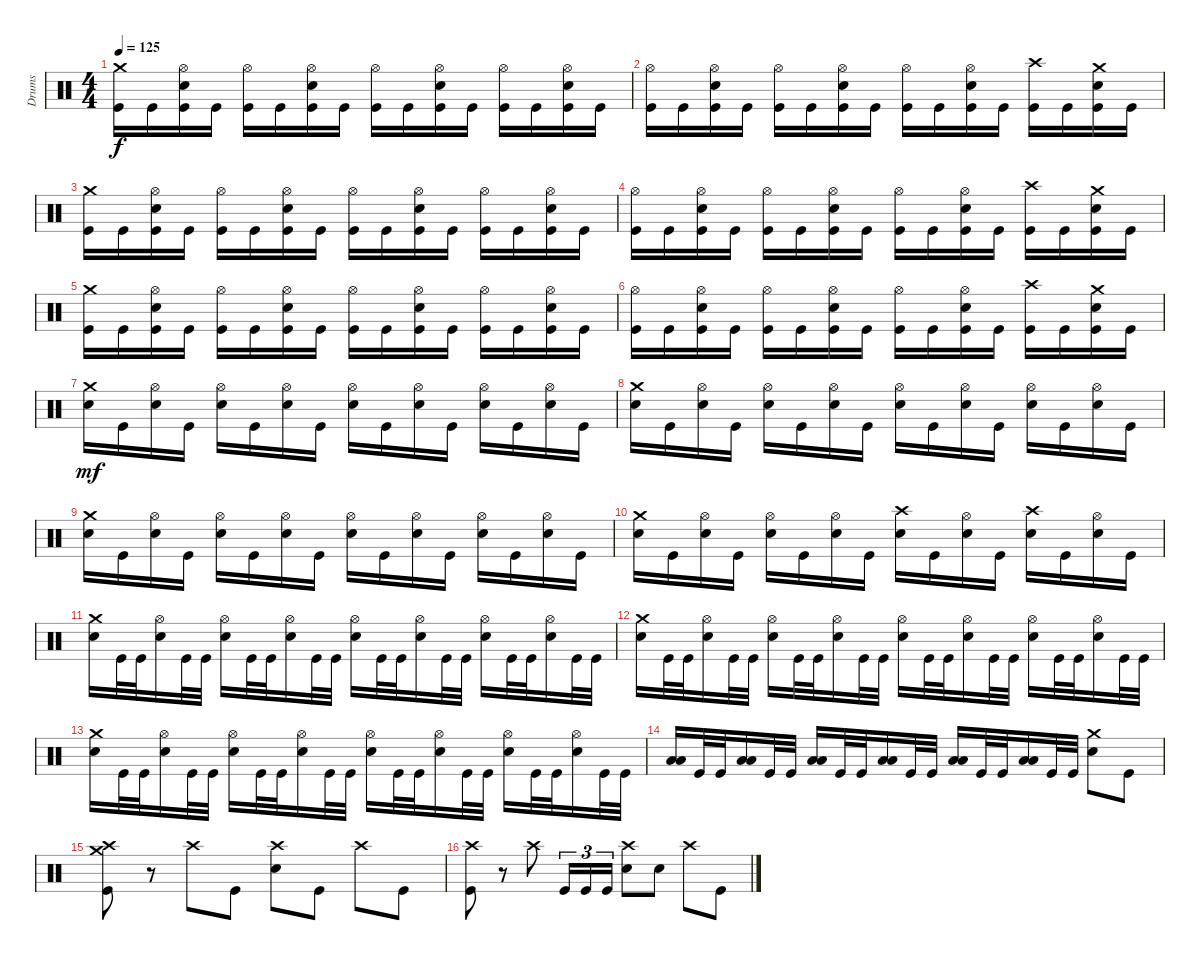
\track ("Drums" "Drums") {instrument percussion}
\staff {score}
\articulation defaults
\ts (4 4)
\tempo 125
\clef neutral
\ks c
("Crash medium (hit)" "Kick (hit)").16{dy f} "Kick (hit)".16 ("Hi-Hat (open)" "Electric Snare (hit)" "Kick (hit)").16 "Kick (hit)".16 ("Hi-Hat (open)" "Kick (hit)").16 "Kick (hit)".16 ("Hi-Hat (open)" "Electric Snare (hit)" "Kick (hit)").16 "Kick (hit)".16 ("Hi-Hat (open)" "Kick (hit)").16 "Kick (hit)".16 ("Hi-Hat (open)" "Electric Snare (hit)" "Kick (hit)").16 "Kick (hit)".16 ("Hi-Hat (open)" "Kick (hit)").16 "Kick (hit)".16 ("Hi-Hat (open)" "Electric Snare (hit)" "Kick (hit)").16 "Kick (hit)".16 |
("Hi-Hat (open)" "Kick (hit)").16 "Kick (hit)".16 ("Hi-Hat (open)" "Electric Snare (hit)" "Kick (hit)").16 "Kick (hit)".16 ("Hi-Hat (open)" "Kick (hit)").16 "Kick (hit)".16 ("Hi-Hat (open)" "Electric Snare (hit)" "Kick (hit)").16 "Kick (hit)".16 ("Hi-Hat (open)" "Kick (hit)").16 "Kick (hit)".16 ("Hi-Hat (open)" "Electric Snare (hit)" "Kick (hit)").16 "Kick (hit)".16 ("Crash high (hit)" "Kick (hit)").16 "Kick (hit)".16 ("Crash medium (hit)" "Electric Snare (hit)" "Kick (hit)").16 "Kick (hit)".16 |
("Crash medium (hit)" "Kick (hit)").16 "Kick (hit)".16 ("Hi-Hat (open)" "Electric Snare (hit)" "Kick (hit)").16 "Kick (hit)".16 ("Hi-Hat (open)" "Kick (hit)").16 "Kick (hit)".16 ("Hi-Hat (open)" "Electric Snare (hit)" "Kick (hit)").16 "Kick (hit)".16 ("Hi-Hat (open)" "Kick (hit)").16 "Kick (hit)".16 ("Hi-Hat (open)" "Electric Snare (hit)" "Kick (hit)").16 "Kick (hit)".16 ("Hi-Hat (open)" "Kick (hit)").16 "Kick (hit)".16 ("Hi-Hat (open)" "Electric Snare (hit)" "Kick (hit)").16 "Kick (hit)".16 |
("Hi-Hat (open)" "Kick (hit)").16 "Kick (hit)".16 ("Hi-Hat (open)" "Electric Snare (hit)" "Kick (hit)").16 "Kick (hit)".16 ("Hi-Hat (open)" "Kick (hit)").16 "Kick (hit)".16 ("Hi-Hat (open)" "Electric Snare (hit)" "Kick (hit)").16 "Kick (hit)".16 ("Hi-Hat (open)" "Kick (hit)").16 "Kick (hit)".16 ("Hi-Hat (open)" "Electric Snare (hit)" "Kick (hit)").16 "Kick (hit)".16 ("Crash high (hit)" "Kick (hit)").16 "Kick (hit)".16 ("Crash medium (hit)" "Electric Snare (hit)" "Kick (hit)").16 "Kick (hit)".16 |
("Crash medium (hit)" "Kick (hit)").16 "Kick (hit)".16 ("Hi-Hat (open)" "Electric Snare (hit)" "Kick (hit)").16 "Kick (hit)".16 ("Hi-Hat (open)" "Kick (hit)").16 "Kick (hit)".16 ("Hi-Hat (open)" "Electric Snare (hit)" "Kick (hit)").16 "Kick (hit)".16 ("Hi-Hat (open)" "Kick (hit)").16 "Kick (hit)".16 ("Hi-Hat (open)" "Electric Snare (hit)" "Kick (hit)").16 "Kick (hit)".16 ("Hi-Hat (open)" "Kick (hit)").16 "Kick (hit)".16 ("Hi-Hat (open)" "Electric Snare (hit)" "Kick (hit)").16 "Kick (hit)".16 |
("Hi-Hat (open)" "Kick (hit)").16 "Kick (hit)".16 ("Hi-Hat (open)" "Electric Snare (hit)" "Kick (hit)").16 "Kick (hit)".16 ("Hi-Hat (open)" "Kick (hit)").16 "Kick (hit)".16 ("Hi-Hat (open)" "Electric Snare (hit)" "Kick (hit)").16 "Kick (hit)".16 ("Hi-Hat (open)" "Kick (hit)").16 "Kick (hit)".16 ("Hi-Hat (open)" "Electric Snare (hit)" "Kick (hit)").16 "Kick (hit)".16 ("Crash high (hit)" "Kick (hit)").16 "Kick (hit)".16 ("Crash medium (hit)" "Electric Snare (hit)" "Kick (hit)").16 "Kick (hit)".16 |
("Crash medium (hit)" "Electric Snare (hit)").16{dy mf} "Kick (hit)".16 ("Hi-Hat (open)" "Electric Snare (hit)").16 "Kick (hit)".16 ("Hi-Hat (open)" "Electric Snare (hit)").16 "Kick (hit)".16 ("Hi-Hat (open)" "Electric Snare (hit)").16 "Kick (hit)".16 ("Hi-Hat (open)" "Electric Snare (hit)").16 "Kick (hit)".16 ("Hi-Hat (open)" "Electric Snare (hit)").16 "Kick (hit)".16 ("Hi-Hat (open)" "Electric Snare (hit)").16 "Kick (hit)".16 ("Hi-Hat (open)" "Electric Snare (hit)").16 "Kick (hit)".16 |
("Crash medium (hit)" "Electric Snare (hit)").16 "Kick (hit)".16 ("Hi-Hat (open)" "Electric Snare (hit)").16 "Kick (hit)".16 ("Hi-Hat (open)" "Electric Snare (hit)").16 "Kick (hit)".16 ("Hi-Hat (open)" "Electric Snare (hit)").16 "Kick (hit)".16 ("Hi-Hat (open)" "Electric Snare (hit)").16 "Kick (hit)".16 ("Hi-Hat (open)" "Electric Snare (hit)").16 "Kick (hit)".16 ("Hi-Hat (open)" "Electric Snare (hit)").16 "Kick (hit)".16 ("Hi-Hat (open)" "Electric Snare (hit)").16 "Kick (hit)".16 |
("Crash medium (hit)" "Electric Snare (hit)").16 "Kick (hit)".16 ("Hi-Hat (open)" "Electric Snare (hit)").16 "Kick (hit)".16 ("Hi-Hat (open)" "Electric Snare (hit)").16 "Kick (hit)".16 ("Hi-Hat (open)" "Electric Snare (hit)").16 "Kick (hit)".16 ("Hi-Hat (open)" "Electric Snare (hit)").16 "Kick (hit)".16 ("Hi-Hat (open)" "Electric Snare (hit)").16 "Kick (hit)".16 ("Hi-Hat (open)" "Electric Snare (hit)").16 "Kick (hit)".16 ("Hi-Hat (open)" "Electric Snare (hit)").16 "Kick (hit)".16 |
("Crash medium (hit)" "Electric Snare (hit)").16 "Kick (hit)".16 ("Hi-Hat (open)" "Electric Snare (hit)").16 "Kick (hit)".16 ("Hi-Hat (open)" "Electric Snare (hit)").16 "Kick (hit)".16 ("Hi-Hat (open)" "Electric Snare (hit)").16 "Kick (hit)".16 ("Crash high (hit)" "Electric Snare (hit)").16 "Kick (hit)".16 ("Hi-Hat (open)" "Electric Snare (hit)").16 "Kick (hit)".16 ("Crash high (hit)" "Electric Snare (hit)").16 "Kick (hit)".16 ("Hi-Hat (open)" "Electric Snare (hit)").16 "Kick (hit)".16 |
("Crash medium (hit)" "Electric Snare (hit)").16 "Kick (hit)".32 "Kick (hit)".32 ("Hi-Hat (open)" "Electric Snare (hit)").16 "Kick (hit)".32 "Kick (hit)".32 ("Hi-Hat (open)" "Electric Snare (hit)").16 "Kick (hit)".32 "Kick (hit)".32 ("Hi-Hat (open)" "Electric Snare (hit)").16 "Kick (hit)".32 "Kick (hit)".32 ("Hi-Hat (open)" "Electric Snare (hit)").16 "Kick (hit)".32 "Kick (hit)".32 ("Hi-Hat (open)" "Electric Snare (hit)").16 "Kick (hit)".32 "Kick (hit)".32 ("Hi-Hat (open)" "Electric Snare (hit)").16 "Kick (hit)".32 "Kick (hit)".32 ("Hi-Hat (open)" "Electric Snare (hit)").16 "Kick (hit)".32 "Kick (hit)".32 |
("Crash medium (hit)" "Electric Snare (hit)").16 "Kick (hit)".32 "Kick (hit)".32 ("Hi-Hat (open)" "Electric Snare (hit)").16 "Kick (hit)".32 "Kick (hit)".32 ("Hi-Hat (open)" "Electric Snare (hit)").16 "Kick (hit)".32 "Kick (hit)".32 ("Hi-Hat (open)" "Electric Snare (hit)").16 "Kick (hit)".32 "Kick (hit)".32 ("Hi-Hat (open)" "Electric Snare (hit)").16 "Kick (hit)".32 "Kick (hit)".32 ("Hi-Hat (open)" "Electric Snare (hit)").16 "Kick (hit)".32 "Kick (hit)".32 ("Hi-Hat (open)" "Electric Snare (hit)").16 "Kick (hit)".32 "Kick (hit)".32 ("Hi-Hat (open)" "Electric Snare (hit)").16 "Kick (hit)".32 "Kick (hit)".32 |
("Crash medium (hit)" "Electric Snare (hit)").16 "Kick (hit)".32 "Kick (hit)".32 ("Hi-Hat (open)" "Electric Snare (hit)").16 "Kick (hit)".32 "Kick (hit)".32 ("Hi-Hat (open)" "Electric Snare (hit)").16 "Kick (hit)".32 "Kick (hit)".32 ("Hi-Hat (open)" "Electric Snare (hit)").16 "Kick (hit)".32 "Kick (hit)".32 ("Hi-Hat (open)" "Electric Snare (hit)").16 "Kick (hit)".32 "Kick (hit)".32 ("Hi-Hat (open)" "Electric Snare (hit)").16 "Kick (hit)".32 "Kick (hit)".32 ("Hi-Hat (open)" "Electric Snare (hit)").16 "Kick (hit)".32 "Kick (hit)".32 ("Hi-Hat (open)" "Electric Snare (hit)").16 "Kick (hit)".32 "Kick (hit)".32 |
("Low Floor Tom (hit)" "Low Floor Tom (hit)").16 "Kick (hit)".32 "Kick (hit)".32 ("Low Floor Tom (hit)" "Low Floor Tom (hit)").16 "Kick (hit)".32 "Kick (hit)".32 ("Low Floor Tom (hit)" "Low Floor Tom (hit)").16 "Kick (hit)".32 "Kick (hit)".32 ("Low Floor Tom (hit)" "Low Floor Tom (hit)").16 "Kick (hit)".32 "Kick (hit)".32 ("Low Floor Tom (hit)" "Low Floor Tom (hit)").16 "Kick (hit)".32 "Kick (hit)".32 ("Low Floor Tom (hit)" "Low Floor Tom (hit)").16 "Kick (hit)".32 "Kick (hit)".32 ("Crash medium (hit)" "Electric Snare (hit)").8 "Kick (hit)".8 |
("Crash medium (hit)" "Crash high (hit)" "Kick (hit)").8 r.8 "Crash high (hit)".8 "Kick (hit)".8 ("Crash high (hit)" "Electric Snare (hit)").8 "Kick (hit)".8 "Crash high (hit)".8 "Kick (hit)".8 |
("Crash high (hit)" "Kick (hit)").8 r.8 "Crash high (hit)".8 "Kick (hit)".16{tu (3 2)} "Kick (hit)".16{tu (3 2)} "Kick (hit)".16{tu (3 2)} ("Crash high (hit)" "Electric Snare (hit)").8 "Electric Snare (hit)".8 "Crash high (hit)".8 "Kick (hit)".8
